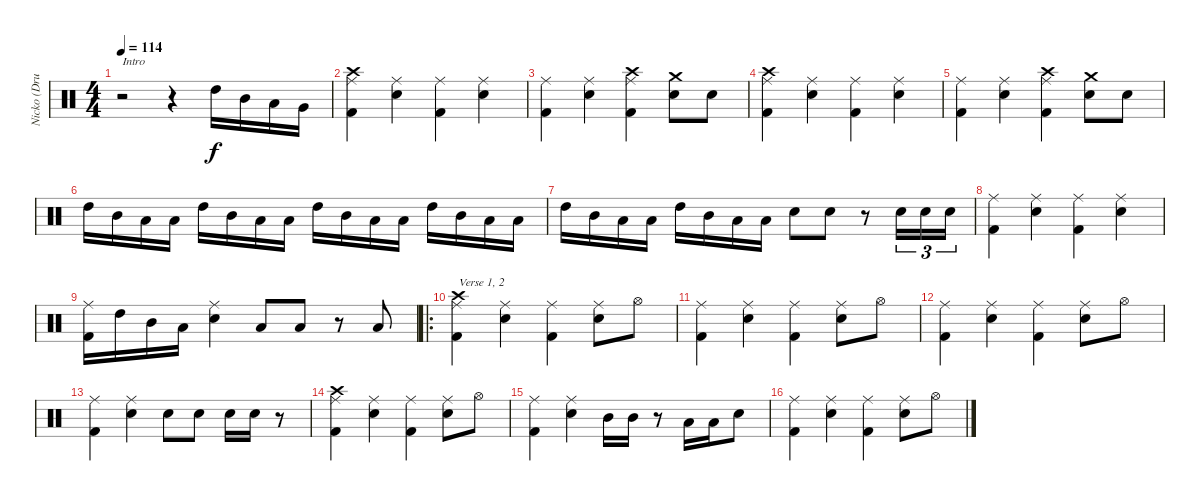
\track ("Nicko (Drums)" "Nicko (Dru") {instrument percussion}
\staff {score}
\articulation defaults
\ts (4 4)
\tempo 114
\clef neutral
\ks c
r.2{txt "Intro" dy f} r.4 "High Tom (hit)".16 "Mid Tom (hit)".16 "Low Tom (hit)".16 "Very Low Tom (hit)".16 |
("Ride (middle)" "Kick (hit) 2" "Crash high (hit)").4 ("Ride (middle)" "Snare (hit) 2").4 ("Ride (middle)" "Kick (hit) 2").4 ("Ride (middle)" "Snare (hit) 2").4 |
("Ride (middle)" "Kick (hit) 2").4 ("Ride (middle)" "Snare (hit) 2").4 ("Ride (middle)" "Kick (hit) 2" "Crash high (hit)").4 ("Snare (hit) 2" "Crash medium (hit)").8 "Snare (hit) 2".8 |
("Ride (middle)" "Kick (hit) 2" "Crash high (hit)").4 ("Ride (middle)" "Snare (hit) 2").4 ("Ride (middle)" "Kick (hit) 2").4 ("Ride (middle)" "Snare (hit) 2").4 |
("Ride (middle)" "Kick (hit) 2").4 ("Ride (middle)" "Snare (hit) 2").4 ("Ride (middle)" "Kick (hit) 2" "Crash high (hit)").4 ("Snare (hit) 2" "Crash medium (hit)").8 "Snare (hit) 2".8 |
"High Tom (hit)".16 "Mid Tom (hit)".16 "Low Tom (hit)".16 "Low Tom (hit)".16 "High Tom (hit)".16 "Mid Tom (hit)".16 "Low Tom (hit)".16 "Low Tom (hit)".16 "High Tom (hit)".16 "Mid Tom (hit)".16 "Low Tom (hit)".16 "Low Tom (hit)".16 "High Tom (hit)".16 "Mid Tom (hit)".16 "Low Tom (hit)".16 "Low Tom (hit)".16 |
"High Tom (hit)".16 "Mid Tom (hit)".16 "Low Tom (hit)".16 "Low Tom (hit)".16 "High Tom (hit)".16 "Mid Tom (hit)".16 "Low Tom (hit)".16 "Low Tom (hit)".16 "Snare (hit) 2".8 "Snare (hit) 2".8 r.8 "Snare (hit) 2".16{tu (3 2)} "Snare (hit) 2".16{tu (3 2)} "Snare (hit) 2".16{tu (3 2)} |
("Ride (middle)" "Kick (hit) 2").4 ("Ride (middle)" "Snare (hit) 2").4 ("Ride (middle)" "Kick (hit) 2").4 ("Ride (middle)" "Snare (hit) 2").4 |
("Ride (middle)" "Kick (hit) 2").16 "High Tom (hit)".16 "Mid Tom (hit)".16 "Low Tom (hit)".16 ("Ride (middle)" "Snare (hit) 2").4 "Low Tom (hit)".8 "Low Tom (hit)".8 r.8 "Low Tom (hit)".8 |
\ro
("Ride (middle)" "Kick (hit) 2" "Crash high (hit)").4{txt "Verse 1, 2"} ("Ride (middle)" "Snare (hit) 2").4 ("Ride (middle)" "Kick (hit) 2").4 ("Ride (middle)" "Snare (hit) 2").8 "Hi-Hat (open)".8 |
("Ride (middle)" "Kick (hit) 2").4 ("Ride (middle)" "Snare (hit) 2").4 ("Ride (middle)" "Kick (hit) 2").4 ("Ride (middle)" "Snare (hit) 2").8 "Hi-Hat (open)".8 |
("Ride (middle)" "Kick (hit) 2").4 ("Ride (middle)" "Snare (hit) 2").4 ("Ride (middle)" "Kick (hit) 2").4 ("Ride (middle)" "Snare (hit) 2").8 "Hi-Hat (open)".8 |
("Ride (middle)" "Kick (hit) 2").4 ("Ride (middle)" "Snare (hit) 2").4 "Snare (hit) 2".8 "Snare (hit) 2".8 "Snare (hit) 2".16 "Snare (hit) 2".16 r.8 |
("Ride (middle)" "Kick (hit) 2" "Crash high (hit)").4 ("Ride (middle)" "Snare (hit) 2").4 ("Ride (middle)" "Kick (hit) 2").4 ("Ride (middle)" "Snare (hit) 2").8 "Hi-Hat (open)".8 |
("Ride (middle)" "Kick (hit) 2").4 ("Ride (middle)" "Snare (hit) 2").4 "Mid Tom (hit)".16 "Mid Tom (hit)".16 r.8 "Low Tom (hit)".16 "Low Tom (hit)".16 "Snare (hit) 2".8 |
("Ride (middle)" "Kick (hit) 2").4 ("Ride (middle)" "Snare (hit) 2").4 ("Ride (middle)" "Kick (hit) 2").4 ("Ride (middle)" "Snare (hit) 2").8 "Hi-Hat (open)".8
